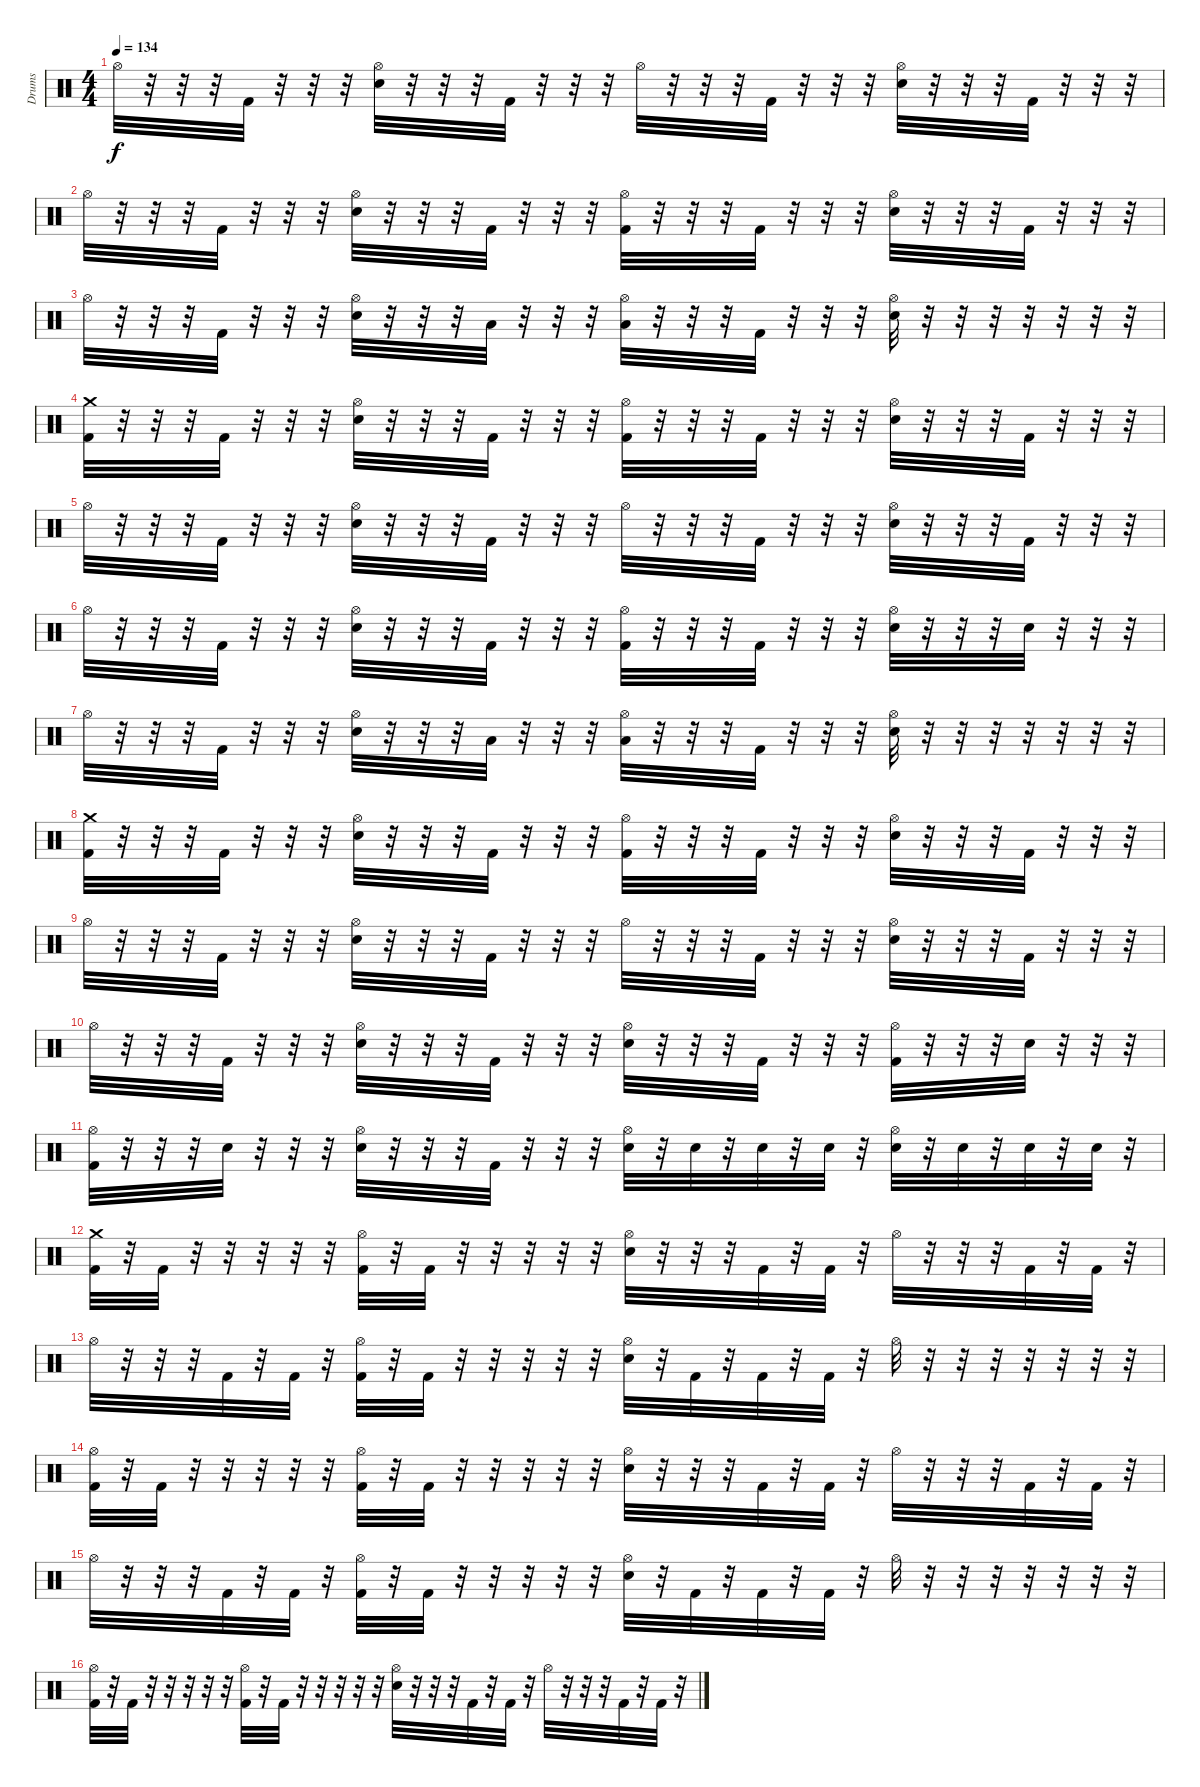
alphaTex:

\track ("Drums" "Drums") {instrument percussion}
\staff {score}
\articulation defaults
\ts (4 4)
\tempo 134
\clef neutral
\ks c "Hi-Hat (open)".32{dy f}
r.32 r.32 r.32 "Kick (hit) 2".32 r.32 r.32 r.32 ("Electric Snare (hit)" "Hi-Hat (open)").32 r.32 r.32 r.32 "Kick (hit) 2".32 r.32 r.32 r.32 "Hi-Hat (open)".32 r.32 r.32 r.32 "Kick (hit) 2".32 r.32 r.32 r.32 ("Electric Snare (hit)" "Hi-Hat (open)").32 r.32 r.32 r.32 "Kick (hit) 2".32 r.32 r.32 r.32 |
"Hi-Hat (open)".32 r.32 r.32 r.32 "Kick (hit) 2".32 r.32 r.32 r.32 ("Electric Snare (hit)" "Hi-Hat (open)").32 r.32 r.32 r.32 "Kick (hit) 2".32 r.32 r.32 r.32 ("Kick (hit) 2" "Hi-Hat (open)").32 r.32 r.32 r.32 "Kick (hit) 2".32 r.32 r.32 r.32 ("Electric Snare (hit)" "Hi-Hat (open)").32 r.32 r.32 r.32 "Kick (hit) 2".32 r.32 r.32 r.32 |
"Hi-Hat (open)".32 r.32 r.32 r.32 "Kick (hit) 2".32 r.32 r.32 r.32 ("Electric Snare (hit)" "Hi-Hat (open)").32 r.32 r.32 r.32 "Low Tom (hit)".32 r.32 r.32 r.32 ("Low Floor Tom (hit)" "Hi-Hat (open)").32 r.32 r.32 r.32 "Kick (hit) 2".32 r.32 r.32 r.32 ("Electric Snare (hit)" "Hi-Hat (open)").32 r.32 r.32 r.32 r.32 r.32 r.32 r.32 |
("Kick (hit) 2" "Crash medium (hit)").32 r.32 r.32 r.32 "Kick (hit) 2".32 r.32 r.32 r.32 ("Electric Snare (hit)" "Hi-Hat (open)").32 r.32 r.32 r.32 "Kick (hit) 2".32 r.32 r.32 r.32 ("Kick (hit) 2" "Hi-Hat (open)").32 r.32 r.32 r.32 "Kick (hit) 2".32 r.32 r.32 r.32 ("Electric Snare (hit)" "Hi-Hat (open)").32 r.32 r.32 r.32 "Kick (hit) 2".32 r.32 r.32 r.32 |
"Hi-Hat (open)".32 r.32 r.32 r.32 "Kick (hit) 2".32 r.32 r.32 r.32 ("Electric Snare (hit)" "Hi-Hat (open)").32 r.32 r.32 r.32 "Kick (hit) 2".32 r.32 r.32 r.32 "Hi-Hat (open)".32 r.32 r.32 r.32 "Kick (hit) 2".32 r.32 r.32 r.32 ("Electric Snare (hit)" "Hi-Hat (open)").32 r.32 r.32 r.32 "Kick (hit) 2".32 r.32 r.32 r.32 |
"Hi-Hat (open)".32 r.32 r.32 r.32 "Kick (hit) 2".32 r.32 r.32 r.32 ("Electric Snare (hit)" "Hi-Hat (open)").32 r.32 r.32 r.32 "Kick (hit) 2".32 r.32 r.32 r.32 ("Kick (hit) 2" "Hi-Hat (open)").32 r.32 r.32 r.32 "Kick (hit) 2".32 r.32 r.32 r.32 ("Electric Snare (hit)" "Hi-Hat (open)").32 r.32 r.32 r.32 "Electric Snare (hit)".32 r.32 r.32 r.32 |
"Hi-Hat (open)".32 r.32 r.32 r.32 "Kick (hit) 2".32 r.32 r.32 r.32 ("Electric Snare (hit)" "Hi-Hat (open)").32 r.32 r.32 r.32 "Low Tom (hit)".32 r.32 r.32 r.32 ("Low Floor Tom (hit)" "Hi-Hat (open)").32 r.32 r.32 r.32 "Kick (hit) 2".32 r.32 r.32 r.32 ("Electric Snare (hit)" "Hi-Hat (open)").32 r.32 r.32 r.32 r.32 r.32 r.32 r.32 |
("Kick (hit) 2" "Crash medium (hit)").32 r.32 r.32 r.32 "Kick (hit) 2".32 r.32 r.32 r.32 ("Electric Snare (hit)" "Hi-Hat (open)").32 r.32 r.32 r.32 "Kick (hit) 2".32 r.32 r.32 r.32 ("Kick (hit) 2" "Hi-Hat (open)").32 r.32 r.32 r.32 "Kick (hit) 2".32 r.32 r.32 r.32 ("Electric Snare (hit)" "Hi-Hat (open)").32 r.32 r.32 r.32 "Kick (hit) 2".32 r.32 r.32 r.32 |
"Hi-Hat (open)".32 r.32 r.32 r.32 "Kick (hit) 2".32 r.32 r.32 r.32 ("Electric Snare (hit)" "Hi-Hat (open)").32 r.32 r.32 r.32 "Kick (hit) 2".32 r.32 r.32 r.32 "Hi-Hat (open)".32 r.32 r.32 r.32 "Kick (hit) 2".32 r.32 r.32 r.32 ("Electric Snare (hit)" "Hi-Hat (open)").32 r.32 r.32 r.32 "Kick (hit) 2".32 r.32 r.32 r.32 |
"Hi-Hat (open)".32 r.32 r.32 r.32 "Kick (hit) 2".32 r.32 r.32 r.32 ("Electric Snare (hit)" "Hi-Hat (open)").32 r.32 r.32 r.32 "Kick (hit) 2".32 r.32 r.32 r.32 ("Electric Snare (hit)" "Hi-Hat (open)").32 r.32 r.32 r.32 "Kick (hit) 2".32 r.32 r.32 r.32 ("Kick (hit) 2" "Hi-Hat (open)").32 r.32 r.32 r.32 "Electric Snare (hit)".32 r.32 r.32 r.32 |
("Kick (hit) 2" "Hi-Hat (open)").32 r.32 r.32 r.32 "Electric Snare (hit)".32 r.32 r.32 r.32 ("Electric Snare (hit)" "Hi-Hat (open)").32 r.32 r.32 r.32 "Kick (hit) 2".32 r.32 r.32 r.32 ("Electric Snare (hit)" "Hi-Hat (open)").32 r.32 "Electric Snare (hit)".32 r.32 "Electric Snare (hit)".32 r.32 "Electric Snare (hit)".32 r.32 ("Electric Snare (hit)" "Hi-Hat (open)").32 r.32 "Electric Snare (hit)".32 r.32 "Electric Snare (hit)".32 r.32 "Electric Snare (hit)".32 r.32 |
("Kick (hit) 2" "Crash medium (hit)").32 r.32 "Kick (hit) 2".32 r.32 r.32 r.32 r.32 r.32 ("Kick (hit) 2" "Hi-Hat (open)").32 r.32 "Kick (hit) 2".32 r.32 r.32 r.32 r.32 r.32 ("Electric Snare (hit)" "Hi-Hat (open)").32 r.32 r.32 r.32 "Kick (hit) 2".32 r.32 "Kick (hit) 2".32 r.32 "Hi-Hat (open)".32 r.32 r.32 r.32 "Kick (hit) 2".32 r.32 "Kick (hit) 2".32 r.32 |
"Hi-Hat (open)".32 r.32 r.32 r.32 "Kick (hit) 2".32 r.32 "Kick (hit) 2".32 r.32 ("Kick (hit) 2" "Hi-Hat (open)").32 r.32 "Kick (hit) 2".32 r.32 r.32 r.32 r.32 r.32 ("Electric Snare (hit)" "Hi-Hat (open)").32 r.32 "Kick (hit) 2".32 r.32 "Kick (hit) 2".32 r.32 "Kick (hit) 2".32 r.32 "Hi-Hat (open)".32 r.32 r.32 r.32 r.32 r.32 r.32 r.32 |
("Kick (hit) 2" "Hi-Hat (open)").32 r.32 "Kick (hit) 2".32 r.32 r.32 r.32 r.32 r.32 ("Kick (hit) 2" "Hi-Hat (open)").32 r.32 "Kick (hit) 2".32 r.32 r.32 r.32 r.32 r.32 ("Electric Snare (hit)" "Hi-Hat (open)").32 r.32 r.32 r.32 "Kick (hit) 2".32 r.32 "Kick (hit) 2".32 r.32 "Hi-Hat (open)".32 r.32 r.32 r.32 "Kick (hit) 2".32 r.32 "Kick (hit) 2".32 r.32 |
"Hi-Hat (open)".32 r.32 r.32 r.32 "Kick (hit) 2".32 r.32 "Kick (hit) 2".32 r.32 ("Kick (hit) 2" "Hi-Hat (open)").32 r.32 "Kick (hit) 2".32 r.32 r.32 r.32 r.32 r.32 ("Electric Snare (hit)" "Hi-Hat (open)").32 r.32 "Kick (hit) 2".32 r.32 "Kick (hit) 2".32 r.32 "Kick (hit) 2".32 r.32 "Hi-Hat (open)".32 r.32 r.32 r.32 r.32 r.32 r.32 r.32 |
("Kick (hit) 2" "Hi-Hat (open)").32 r.32 "Kick (hit) 2".32 r.32 r.32 r.32 r.32 r.32 ("Kick (hit) 2" "Hi-Hat (open)").32 r.32 "Kick (hit) 2".32 r.32 r.32 r.32 r.32 r.32 ("Electric Snare (hit)" "Hi-Hat (open)").32 r.32 r.32 r.32 "Kick (hit) 2".32 r.32 "Kick (hit) 2".32 r.32 "Hi-Hat (open)".32 r.32 r.32 r.32 "Kick (hit) 2".32 r.32 "Kick (hit) 2".32 r.32
